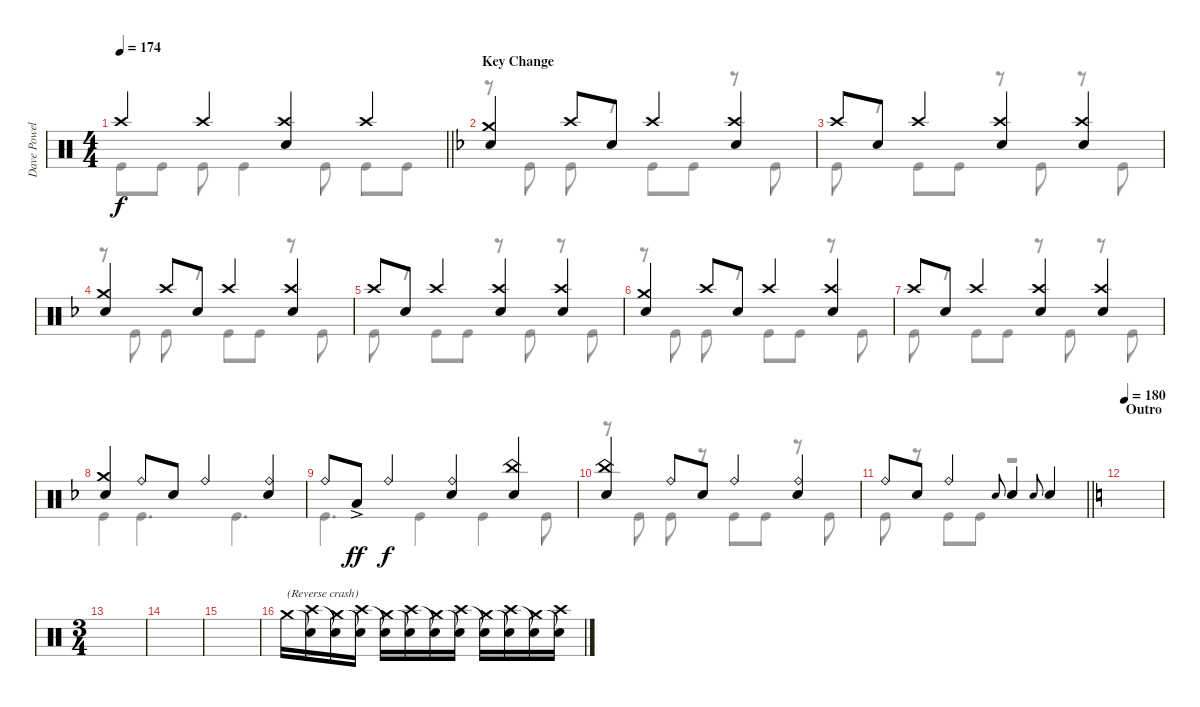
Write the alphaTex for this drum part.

\track ("Dave Powell" "Dave Powel") {instrument percussion}
\staff {score}
\articulation defaults
\voice
\ts (4 4)
\tempo 174
\clef neutral
\barLineRight lightlight
\ks c "Crash high (hit)".4{dy f} "Crash high (hit)".4
("Crash high (hit)" "Electric Snare (hit)").4 "Crash high (hit)".4 |
\section ("" "Key Change")
\ks f
("Crash medium (hit)" "Electric Snare (hit)").4 "Crash high (hit)".8 "Electric Snare (hit)".8 "Crash high (hit)".4 ("Crash high (hit)" "Electric Snare (hit)").4 |
"Crash high (hit)".8 "Electric Snare (hit)".8 "Crash high (hit)".4 ("Crash high (hit)" "Electric Snare (hit)").4 ("Crash high (hit)" "Electric Snare (hit)").4 |
("Crash medium (hit)" "Electric Snare (hit)").4 "Crash high (hit)".8 "Electric Snare (hit)".8 "Crash high (hit)".4 ("Crash high (hit)" "Electric Snare (hit)").4 |
"Crash high (hit)".8 "Electric Snare (hit)".8 "Crash high (hit)".4 ("Crash high (hit)" "Electric Snare (hit)").4 ("Crash high (hit)" "Electric Snare (hit)").4 |
("Crash medium (hit)" "Electric Snare (hit)").4 "Crash high (hit)".8 "Electric Snare (hit)".8 "Crash high (hit)".4 ("Crash high (hit)" "Electric Snare (hit)").4 |
"Crash high (hit)".8 "Electric Snare (hit)".8 "Crash high (hit)".4 ("Crash high (hit)" "Electric Snare (hit)").4 ("Crash high (hit)" "Electric Snare (hit)").4 |
("Crash medium (hit)" "Electric Snare (hit)").4 "Ride (bell)".8 "Electric Snare (hit)".8 "Ride (bell)".4 ("Ride (bell)" "Electric Snare (hit)").4 |
"Ride (bell)".8 "Low Tom (hit)"{ac}.8{dy ff} "Ride (bell)".4{dy f} ("Ride (bell)" "Electric Snare (hit)").4 ("China (hit)" "Electric Snare (hit)").4 |
("China (hit)" "Electric Snare (hit)").4 "Ride (bell)".8 "Electric Snare (hit)".8 "Ride (bell)".4 ("Ride (bell)" "Electric Snare (hit)").4 |
\barLineRight lightlight "Ride (bell)".8 "Electric Snare (hit)".8 "Ride (bell)".4 "Electric Snare (hit)".8{gr onbeat} "Electric Snare (hit)".4 "Electric Snare (hit)".8{gr onbeat} "Electric Snare (hit)".4
|
\section ("" "Outro")
\tempo 180
\ks c
|
\ts (3 4)
|
|
|
"Crash medium (hit)".16{txt "(Reverse crash)" volume 16} ("Snare (hit)"{t} "Crash high (hit)").16 ("Crash medium (hit)" "Snare (hit)"{t}).16 ("Snare (hit)"{t} "Crash high (hit)").16 ("Crash medium (hit)" "Snare (hit)"{t}).16 ("Snare (hit)"{t} "Crash high (hit)").16 ("Crash medium (hit)" "Snare (hit)"{t}).16 ("Snare (hit)"{t} "Crash high (hit)").16 ("Crash medium (hit)" "Snare (hit)"{t}).16 ("Snare (hit)"{t} "Crash high (hit)").16 ("Crash medium (hit)" "Snare (hit)"{t}).16 ("Snare (hit)"{t} "Crash high (hit)").16
\voice
\clef neutral
\ottava regular
\simile none
\barLineRight lightlight
\ks c "Kick (hit)".8{dy f} "Kick (hit)".8 "Kick (hit)".8 "Kick (hit)".4 "Kick (hit)".8 "Kick (hit)".8 "Kick (hit)".8
|
\ks f
r.8 "Kick (hit)".8 "Kick (hit)".8 r.8 "Kick (hit)".8 "Kick (hit)".8 r.8 "Kick (hit)".8 |
"Kick (hit)".8 r.8 "Kick (hit)".8 "Kick (hit)".8 r.8 "Kick (hit)".8 r.8 "Kick (hit)".8 |
r.8 "Kick (hit)".8 "Kick (hit)".8 r.8 "Kick (hit)".8 "Kick (hit)".8 r.8 "Kick (hit)".8 |
"Kick (hit)".8 r.8 "Kick (hit)".8 "Kick (hit)".8 r.8 "Kick (hit)".8 r.8 "Kick (hit)".8 |
r.8 "Kick (hit)".8 "Kick (hit)".8 r.8 "Kick (hit)".8 "Kick (hit)".8 r.8 "Kick (hit)".8 |
"Kick (hit)".8 r.8 "Kick (hit)".8 "Kick (hit)".8 r.8 "Kick (hit)".8 r.8 "Kick (hit)".8 |
"Kick (hit)".4 "Kick (hit)".4{d} "Kick (hit)".4{d} |
"Kick (hit)".4{d} "Kick (hit)".4 "Kick (hit)".4 "Kick (hit)".8 |
r.8 "Kick (hit)".8 "Kick (hit)".8 r.8 "Kick (hit)".8 "Kick (hit)".8 r.8 "Kick (hit)".8 |
\barLineRight lightlight "Kick (hit)".8
r.8 "Kick (hit)".8 "Kick (hit)".8 r.2 |
\ks c
|
|
|
|
